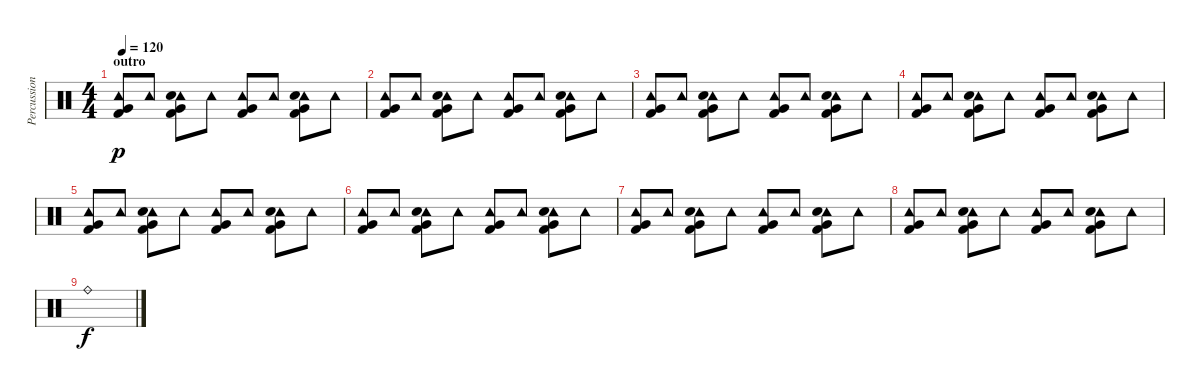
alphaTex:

\track ("Percussion" "Percussion") {instrument percussion}
\staff {score}
\articulation defaults
\ts (4 4)
\section ("" "outro")
\tempo 120
\clef neutral
\ks c
("Tambourine (hit)" "Very Low Tom (hit)" "Kick (hit) 2").8{dy p} "Tambourine (hit)".8 ("Tambourine (hit)" "Very Low Tom (hit)" "Snare (hit) 2" "Kick (hit) 2").8 "Tambourine (hit)".8 ("Tambourine (hit)" "Very Low Tom (hit)" "Kick (hit) 2").8 "Tambourine (hit)".8 ("Tambourine (hit)" "Very Low Tom (hit)" "Snare (hit) 2" "Kick (hit) 2").8 "Tambourine (hit)".8 |
("Tambourine (hit)" "Very Low Tom (hit)" "Kick (hit) 2").8 "Tambourine (hit)".8 ("Tambourine (hit)" "Very Low Tom (hit)" "Snare (hit) 2" "Kick (hit) 2").8 "Tambourine (hit)".8 ("Tambourine (hit)" "Very Low Tom (hit)" "Kick (hit) 2").8 "Tambourine (hit)".8 ("Tambourine (hit)" "Very Low Tom (hit)" "Snare (hit) 2" "Kick (hit) 2").8 "Tambourine (hit)".8 |
("Tambourine (hit)" "Very Low Tom (hit)" "Kick (hit) 2").8 "Tambourine (hit)".8 ("Tambourine (hit)" "Very Low Tom (hit)" "Snare (hit) 2" "Kick (hit) 2").8 "Tambourine (hit)".8 ("Tambourine (hit)" "Very Low Tom (hit)" "Kick (hit) 2").8 "Tambourine (hit)".8 ("Tambourine (hit)" "Very Low Tom (hit)" "Snare (hit) 2" "Kick (hit) 2").8 "Tambourine (hit)".8 |
("Tambourine (hit)" "Very Low Tom (hit)" "Kick (hit) 2").8 "Tambourine (hit)".8 ("Tambourine (hit)" "Very Low Tom (hit)" "Snare (hit) 2" "Kick (hit) 2").8 "Tambourine (hit)".8 ("Tambourine (hit)" "Very Low Tom (hit)" "Kick (hit) 2").8 "Tambourine (hit)".8 ("Tambourine (hit)" "Very Low Tom (hit)" "Snare (hit) 2" "Kick (hit) 2").8 "Tambourine (hit)".8 |
("Tambourine (hit)" "Very Low Tom (hit)" "Kick (hit) 2").8 "Tambourine (hit)".8 ("Tambourine (hit)" "Very Low Tom (hit)" "Snare (hit) 2" "Kick (hit) 2").8 "Tambourine (hit)".8 ("Tambourine (hit)" "Very Low Tom (hit)" "Kick (hit) 2").8 "Tambourine (hit)".8 ("Tambourine (hit)" "Very Low Tom (hit)" "Snare (hit) 2" "Kick (hit) 2").8 "Tambourine (hit)".8 |
("Tambourine (hit)" "Very Low Tom (hit)" "Kick (hit) 2").8 "Tambourine (hit)".8 ("Tambourine (hit)" "Very Low Tom (hit)" "Snare (hit) 2" "Kick (hit) 2").8 "Tambourine (hit)".8 ("Tambourine (hit)" "Very Low Tom (hit)" "Kick (hit) 2").8 "Tambourine (hit)".8 ("Tambourine (hit)" "Very Low Tom (hit)" "Snare (hit) 2" "Kick (hit) 2").8 "Tambourine (hit)".8 |
("Tambourine (hit)" "Very Low Tom (hit)" "Kick (hit) 2").8 "Tambourine (hit)".8 ("Tambourine (hit)" "Very Low Tom (hit)" "Snare (hit) 2" "Kick (hit) 2").8 "Tambourine (hit)".8 ("Tambourine (hit)" "Very Low Tom (hit)" "Kick (hit) 2").8 "Tambourine (hit)".8 ("Tambourine (hit)" "Very Low Tom (hit)" "Snare (hit) 2" "Kick (hit) 2").8 "Tambourine (hit)".8 |
("Tambourine (hit)" "Very Low Tom (hit)" "Kick (hit) 2").8 "Tambourine (hit)".8 ("Tambourine (hit)" "Very Low Tom (hit)" "Snare (hit) 2" "Kick (hit) 2").8 "Tambourine (hit)".8 ("Tambourine (hit)" "Very Low Tom (hit)" "Kick (hit) 2").8 "Tambourine (hit)".8 ("Tambourine (hit)" "Very Low Tom (hit)" "Snare (hit) 2" "Kick (hit) 2").8 "Tambourine (hit)".8 |
"Ride (bell)".1{dy f}
